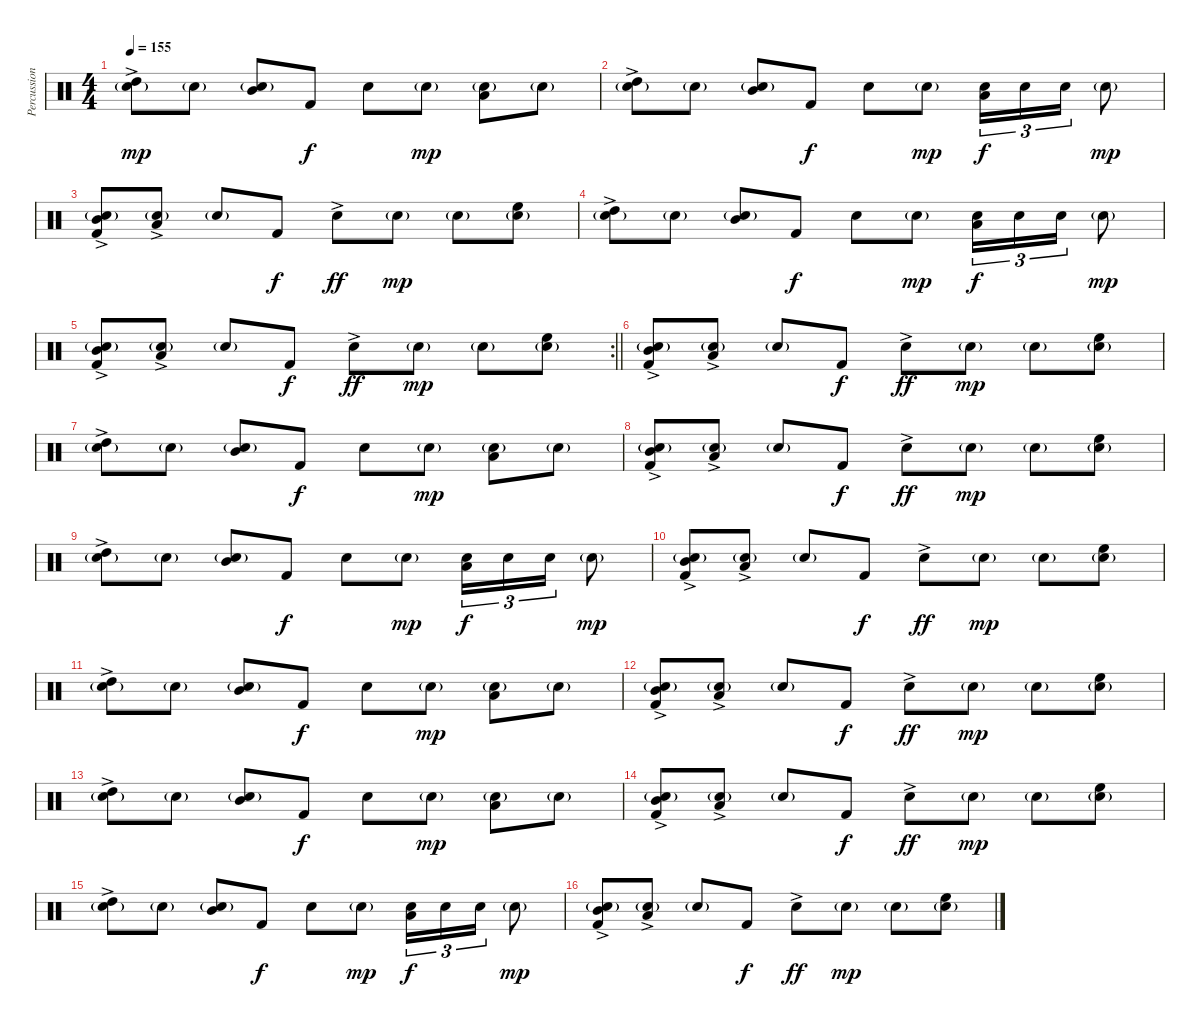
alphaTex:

\track ("Percussion" "Percussion") {instrument percussion}
\staff {score}
\articulation defaults
\ts (4 4)
\tempo 155
\clef neutral
\ks c
("High Tom (hit)"{ac} "Snare (hit) 2"{g}).8{dy mp} "Snare (hit) 2"{g}.8 ("Mid Tom (hit)" "Snare (hit) 2"{g}).8 "Kick (hit) 2".8{dy f} "Snare (hit) 2".8 "Snare (hit) 2"{g}.8{dy mp} ("Low Tom (hit)" "Snare (hit) 2"{g}).8 "Snare (hit) 2"{g}.8 |
("High Tom (hit)"{ac} "Snare (hit) 2"{g}).8 "Snare (hit) 2"{g}.8 ("Mid Tom (hit)" "Snare (hit) 2"{g}).8 "Kick (hit) 2".8{dy f} "Snare (hit) 2".8 "Snare (hit) 2"{g}.8{dy mp} ("Low Tom (hit)" "Snare (hit) 2").16{tu (3 2) dy f} "Snare (hit) 2".16{tu (3 2)} "Snare (hit) 2".16{tu (3 2)} "Snare (hit) 2"{g}.8{dy mp} |
("Mid Tom (hit)"{ac} "Snare (hit) 2"{g} "Kick (hit) 2").8 ("Low Tom (hit)"{ac} "Snare (hit) 2"{g}).8 "Snare (hit) 2"{g}.8 "Kick (hit) 2".8{dy f} "Snare (hit) 2"{ac}.8{dy ff} "Snare (hit) 2"{g}.8{dy mp} "Snare (hit) 2"{g}.8 ("High Floor Tom (hit)" "Snare (hit) 2"{g}).8 |
("High Tom (hit)"{ac} "Snare (hit) 2"{g}).8 "Snare (hit) 2"{g}.8 ("Mid Tom (hit)" "Snare (hit) 2"{g}).8 "Kick (hit) 2".8{dy f} "Snare (hit) 2".8 "Snare (hit) 2"{g}.8{dy mp} ("Low Tom (hit)" "Snare (hit) 2").16{tu (3 2) dy f} "Snare (hit) 2".16{tu (3 2)} "Snare (hit) 2".16{tu (3 2)} "Snare (hit) 2"{g}.8{dy mp} |
\rc 2
\barLineRight lightlight
("Mid Tom (hit)"{ac} "Snare (hit) 2"{g} "Kick (hit) 2").8 ("Low Tom (hit)"{ac} "Snare (hit) 2"{g}).8 "Snare (hit) 2"{g}.8 "Kick (hit) 2".8{dy f} "Snare (hit) 2"{ac}.8{dy ff} "Snare (hit) 2"{g}.8{dy mp} "Snare (hit) 2"{g}.8 ("High Floor Tom (hit)" "Snare (hit) 2"{g}).8 |
\section ("" "")
("Mid Tom (hit)"{ac} "Snare (hit) 2"{g} "Kick (hit) 2").8 ("Low Tom (hit)"{ac} "Snare (hit) 2"{g}).8 "Snare (hit) 2"{g}.8 "Kick (hit) 2".8{dy f} "Snare (hit) 2"{ac}.8{dy ff} "Snare (hit) 2"{g}.8{dy mp} "Snare (hit) 2"{g}.8 ("High Floor Tom (hit)" "Snare (hit) 2"{g}).8 |
("High Tom (hit)"{ac} "Snare (hit) 2"{g}).8 "Snare (hit) 2"{g}.8 ("Mid Tom (hit)" "Snare (hit) 2"{g}).8 "Kick (hit) 2".8{dy f} "Snare (hit) 2".8 "Snare (hit) 2"{g}.8{dy mp} ("Low Tom (hit)" "Snare (hit) 2"{g}).8 "Snare (hit) 2"{g}.8 |
("Mid Tom (hit)"{ac} "Snare (hit) 2"{g} "Kick (hit) 2").8 ("Low Tom (hit)"{ac} "Snare (hit) 2"{g}).8 "Snare (hit) 2"{g}.8 "Kick (hit) 2".8{dy f} "Snare (hit) 2"{ac}.8{dy ff} "Snare (hit) 2"{g}.8{dy mp} "Snare (hit) 2"{g}.8 ("High Floor Tom (hit)" "Snare (hit) 2"{g}).8 |
("High Tom (hit)"{ac} "Snare (hit) 2"{g}).8 "Snare (hit) 2"{g}.8 ("Mid Tom (hit)" "Snare (hit) 2"{g}).8 "Kick (hit) 2".8{dy f} "Snare (hit) 2".8 "Snare (hit) 2"{g}.8{dy mp} ("Low Tom (hit)" "Snare (hit) 2").16{tu (3 2) dy f} "Snare (hit) 2".16{tu (3 2)} "Snare (hit) 2".16{tu (3 2)} "Snare (hit) 2"{g}.8{dy mp} |
("Mid Tom (hit)"{ac} "Snare (hit) 2"{g} "Kick (hit) 2").8 ("Low Tom (hit)"{ac} "Snare (hit) 2"{g}).8 "Snare (hit) 2"{g}.8 "Kick (hit) 2".8{dy f} "Snare (hit) 2"{ac}.8{dy ff} "Snare (hit) 2"{g}.8{dy mp} "Snare (hit) 2"{g}.8 ("High Floor Tom (hit)" "Snare (hit) 2"{g}).8 |
("High Tom (hit)"{ac} "Snare (hit) 2"{g}).8 "Snare (hit) 2"{g}.8 ("Mid Tom (hit)" "Snare (hit) 2"{g}).8 "Kick (hit) 2".8{dy f} "Snare (hit) 2".8 "Snare (hit) 2"{g}.8{dy mp} ("Low Tom (hit)" "Snare (hit) 2"{g}).8 "Snare (hit) 2"{g}.8 |
("Mid Tom (hit)"{ac} "Snare (hit) 2"{g} "Kick (hit) 2").8 ("Low Tom (hit)"{ac} "Snare (hit) 2"{g}).8 "Snare (hit) 2"{g}.8 "Kick (hit) 2".8{dy f} "Snare (hit) 2"{ac}.8{dy ff} "Snare (hit) 2"{g}.8{dy mp} "Snare (hit) 2"{g}.8 ("High Floor Tom (hit)" "Snare (hit) 2"{g}).8 |
("High Tom (hit)"{ac} "Snare (hit) 2"{g}).8 "Snare (hit) 2"{g}.8 ("Mid Tom (hit)" "Snare (hit) 2"{g}).8 "Kick (hit) 2".8{dy f} "Snare (hit) 2".8 "Snare (hit) 2"{g}.8{dy mp} ("Low Tom (hit)" "Snare (hit) 2"{g}).8 "Snare (hit) 2"{g}.8 |
("Mid Tom (hit)"{ac} "Snare (hit) 2"{g} "Kick (hit) 2").8 ("Low Tom (hit)"{ac} "Snare (hit) 2"{g}).8 "Snare (hit) 2"{g}.8 "Kick (hit) 2".8{dy f} "Snare (hit) 2"{ac}.8{dy ff} "Snare (hit) 2"{g}.8{dy mp} "Snare (hit) 2"{g}.8 ("High Floor Tom (hit)" "Snare (hit) 2"{g}).8 |
("High Tom (hit)"{ac} "Snare (hit) 2"{g}).8 "Snare (hit) 2"{g}.8 ("Mid Tom (hit)" "Snare (hit) 2"{g}).8 "Kick (hit) 2".8{dy f} "Snare (hit) 2".8 "Snare (hit) 2"{g}.8{dy mp} ("Low Tom (hit)" "Snare (hit) 2").16{tu (3 2) dy f} "Snare (hit) 2".16{tu (3 2)} "Snare (hit) 2".16{tu (3 2)} "Snare (hit) 2"{g}.8{dy mp} |
("Mid Tom (hit)"{ac} "Snare (hit) 2"{g} "Kick (hit) 2").8 ("Low Tom (hit)"{ac} "Snare (hit) 2"{g}).8 "Snare (hit) 2"{g}.8 "Kick (hit) 2".8{dy f} "Snare (hit) 2"{ac}.8{dy ff} "Snare (hit) 2"{g}.8{dy mp} "Snare (hit) 2"{g}.8 ("High Floor Tom (hit)" "Snare (hit) 2"{g}).8
